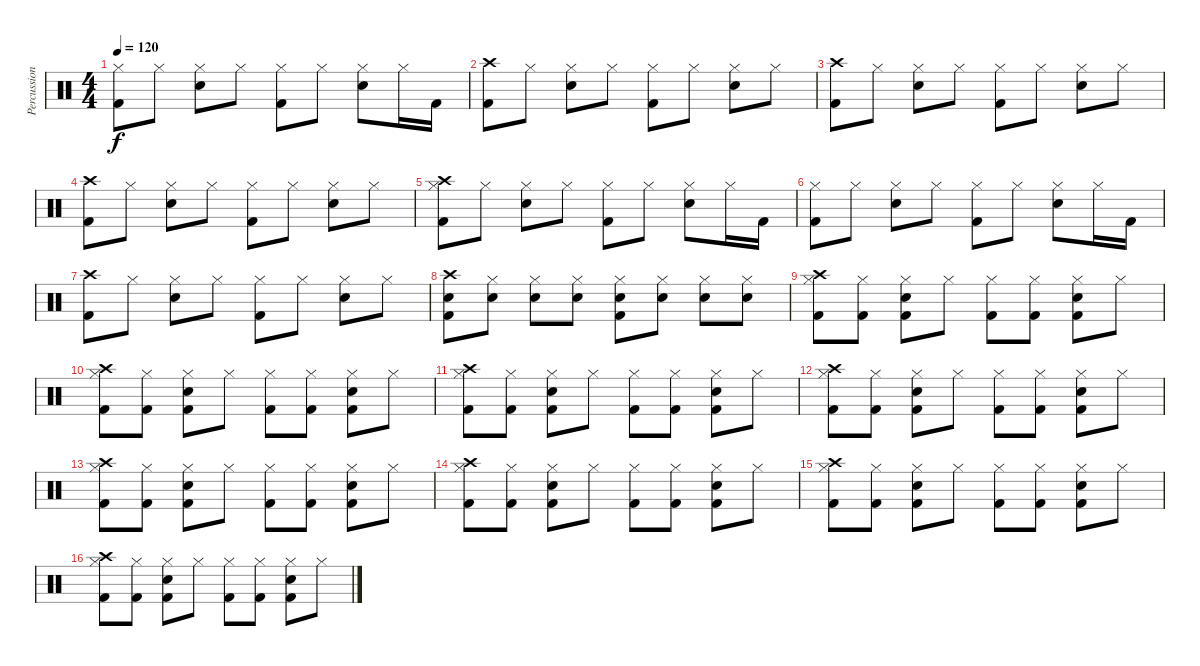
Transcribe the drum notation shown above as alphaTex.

\track ("Percussion" "Percussion") {instrument percussion}
\staff {score}
\articulation defaults
\ts (4 4)
\tempo 120
\clef neutral
\ks c
("Kick (hit) 2" "Hi-Hat (closed)").8{dy f} "Hi-Hat (closed)".8 ("Snare (hit) 2" "Hi-Hat (closed)").8 "Hi-Hat (closed)".8 ("Kick (hit) 2" "Hi-Hat (closed)").8 "Hi-Hat (closed)".8 ("Snare (hit) 2" "Hi-Hat (closed)").8 "Hi-Hat (closed)".16 "Kick (hit) 2".16 |
("Kick (hit) 2" "Crash high (hit)").8 "Hi-Hat (closed)".8 ("Snare (hit) 2" "Hi-Hat (closed)").8 "Hi-Hat (closed)".8 ("Kick (hit) 2" "Hi-Hat (closed)").8 "Hi-Hat (closed)".8 ("Snare (hit) 2" "Hi-Hat (closed)").8 "Hi-Hat (closed)".8 |
("Kick (hit) 2" "Crash high (hit)").8 "Hi-Hat (closed)".8 ("Snare (hit) 2" "Hi-Hat (closed)").8 "Hi-Hat (closed)".8 ("Kick (hit) 2" "Hi-Hat (closed)").8 "Hi-Hat (closed)".8 ("Snare (hit) 2" "Hi-Hat (closed)").8 "Hi-Hat (closed)".8 |
("Kick (hit) 2" "Crash high (hit)").8 "Hi-Hat (closed)".8 ("Snare (hit) 2" "Hi-Hat (closed)").8 "Hi-Hat (closed)".8 ("Kick (hit) 2" "Hi-Hat (closed)").8 "Hi-Hat (closed)".8 ("Snare (hit) 2" "Hi-Hat (closed)").8 "Hi-Hat (closed)".8 |
("Kick (hit) 2" "Hi-Hat (closed)" "Crash high (hit)").8 "Hi-Hat (closed)".8 ("Snare (hit) 2" "Hi-Hat (closed)").8 "Hi-Hat (closed)".8 ("Kick (hit) 2" "Hi-Hat (closed)").8 "Hi-Hat (closed)".8 ("Snare (hit) 2" "Hi-Hat (closed)").8 "Hi-Hat (closed)".16 "Kick (hit) 2".16 |
("Kick (hit) 2" "Hi-Hat (closed)").8 "Hi-Hat (closed)".8 ("Snare (hit) 2" "Hi-Hat (closed)").8 "Hi-Hat (closed)".8 ("Kick (hit) 2" "Hi-Hat (closed)").8 "Hi-Hat (closed)".8 ("Snare (hit) 2" "Hi-Hat (closed)").8 "Hi-Hat (closed)".16 "Kick (hit) 2".16 |
("Kick (hit) 2" "Crash high (hit)").8 "Hi-Hat (closed)".8 ("Snare (hit) 2" "Hi-Hat (closed)").8 "Hi-Hat (closed)".8 ("Kick (hit) 2" "Hi-Hat (closed)").8 "Hi-Hat (closed)".8 ("Snare (hit) 2" "Hi-Hat (closed)").8 "Hi-Hat (closed)".8 |
("Kick (hit) 2" "Snare (hit) 2" "Crash high (hit)").8 ("Snare (hit) 2" "Hi-Hat (closed)").8 ("Snare (hit) 2" "Hi-Hat (closed)").8 ("Snare (hit) 2" "Hi-Hat (closed)").8 ("Kick (hit) 2" "Snare (hit) 2" "Hi-Hat (closed)").8 ("Snare (hit) 2" "Hi-Hat (closed)").8 ("Snare (hit) 2" "Hi-Hat (closed)").8 ("Snare (hit) 2" "Hi-Hat (closed)").8 |
("Kick (hit) 2" "Hi-Hat (closed)" "Crash high (hit)").8 ("Kick (hit) 2" "Hi-Hat (closed)").8 ("Kick (hit) 2" "Snare (hit) 2" "Hi-Hat (closed)").8 "Hi-Hat (closed)".8 ("Kick (hit) 2" "Hi-Hat (closed)").8 ("Kick (hit) 2" "Hi-Hat (closed)").8 ("Kick (hit) 2" "Snare (hit) 2" "Hi-Hat (closed)").8 "Hi-Hat (closed)".8 |
("Kick (hit) 2" "Hi-Hat (closed)" "Crash high (hit)").8 ("Kick (hit) 2" "Hi-Hat (closed)").8 ("Kick (hit) 2" "Snare (hit) 2" "Hi-Hat (closed)").8 "Hi-Hat (closed)".8 ("Kick (hit) 2" "Hi-Hat (closed)").8 ("Kick (hit) 2" "Hi-Hat (closed)").8 ("Kick (hit) 2" "Snare (hit) 2" "Hi-Hat (closed)").8 "Hi-Hat (closed)".8 |
("Kick (hit) 2" "Hi-Hat (closed)" "Crash high (hit)").8 ("Kick (hit) 2" "Hi-Hat (closed)").8 ("Kick (hit) 2" "Snare (hit) 2" "Hi-Hat (closed)").8 "Hi-Hat (closed)".8 ("Kick (hit) 2" "Hi-Hat (closed)").8 ("Kick (hit) 2" "Hi-Hat (closed)").8 ("Kick (hit) 2" "Snare (hit) 2" "Hi-Hat (closed)").8 "Hi-Hat (closed)".8 |
("Kick (hit) 2" "Hi-Hat (closed)" "Crash high (hit)").8 ("Kick (hit) 2" "Hi-Hat (closed)").8 ("Kick (hit) 2" "Snare (hit) 2" "Hi-Hat (closed)").8 "Hi-Hat (closed)".8 ("Kick (hit) 2" "Hi-Hat (closed)").8 ("Kick (hit) 2" "Hi-Hat (closed)").8 ("Kick (hit) 2" "Snare (hit) 2" "Hi-Hat (closed)").8 "Hi-Hat (closed)".8 |
("Kick (hit) 2" "Hi-Hat (closed)" "Crash high (hit)").8 ("Kick (hit) 2" "Hi-Hat (closed)").8 ("Kick (hit) 2" "Snare (hit) 2" "Hi-Hat (closed)").8 "Hi-Hat (closed)".8 ("Kick (hit) 2" "Hi-Hat (closed)").8 ("Kick (hit) 2" "Hi-Hat (closed)").8 ("Kick (hit) 2" "Snare (hit) 2" "Hi-Hat (closed)").8 "Hi-Hat (closed)".8 |
("Kick (hit) 2" "Hi-Hat (closed)" "Crash high (hit)").8 ("Kick (hit) 2" "Hi-Hat (closed)").8 ("Kick (hit) 2" "Snare (hit) 2" "Hi-Hat (closed)").8 "Hi-Hat (closed)".8 ("Kick (hit) 2" "Hi-Hat (closed)").8 ("Kick (hit) 2" "Hi-Hat (closed)").8 ("Kick (hit) 2" "Snare (hit) 2" "Hi-Hat (closed)").8 "Hi-Hat (closed)".8 |
("Kick (hit) 2" "Hi-Hat (closed)" "Crash high (hit)").8 ("Kick (hit) 2" "Hi-Hat (closed)").8 ("Kick (hit) 2" "Snare (hit) 2" "Hi-Hat (closed)").8 "Hi-Hat (closed)".8 ("Kick (hit) 2" "Hi-Hat (closed)").8 ("Kick (hit) 2" "Hi-Hat (closed)").8 ("Kick (hit) 2" "Snare (hit) 2" "Hi-Hat (closed)").8 "Hi-Hat (closed)".8 |
("Kick (hit) 2" "Hi-Hat (closed)" "Crash high (hit)").8 ("Kick (hit) 2" "Hi-Hat (closed)").8 ("Kick (hit) 2" "Snare (hit) 2" "Hi-Hat (closed)").8 "Hi-Hat (closed)".8 ("Kick (hit) 2" "Hi-Hat (closed)").8 ("Kick (hit) 2" "Hi-Hat (closed)").8 ("Kick (hit) 2" "Snare (hit) 2" "Hi-Hat (closed)").8 "Hi-Hat (closed)".8
